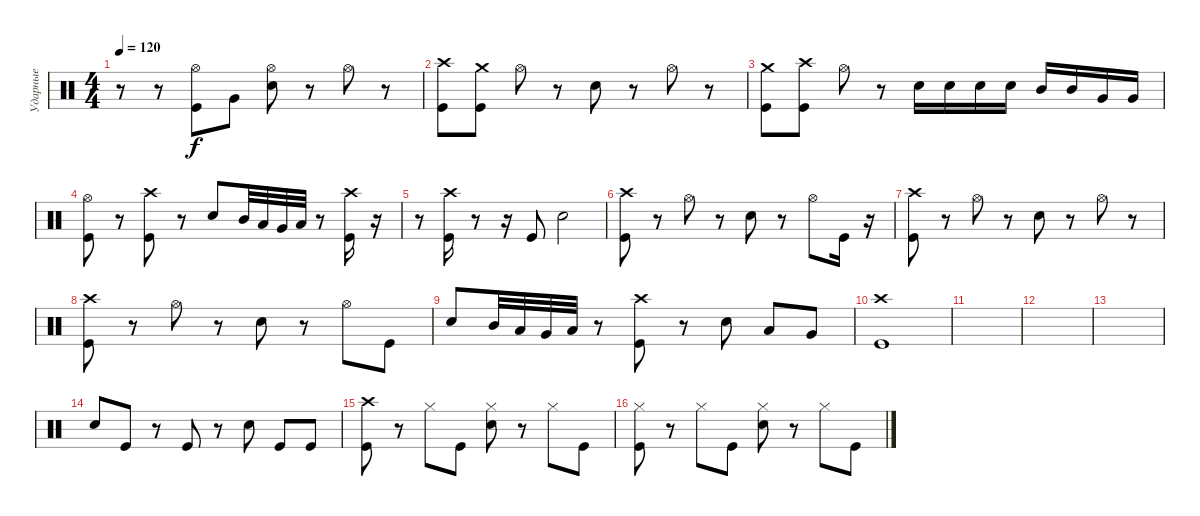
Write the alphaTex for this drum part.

\track ("Ударные" "Ударные") {instrument percussion}
\staff {score}
\articulation defaults
\ts (4 4)
\tempo 120
\clef neutral
\ks c
r.8{dy f} r.8 ("Hi-Hat (open)" "Kick (hit)").8 "Very Low Tom (hit)".8 ("Hi-Hat (open)" "Snare (hit) 2").8 r.8 "Hi-Hat (open)".8 r.8 |
("Crash high (hit)" "Kick (hit)").8 ("Crash medium (hit)" "Kick (hit)").8 "Hi-Hat (open)".8 r.8 "Snare (hit) 2".8 r.8 "Hi-Hat (open)".8 r.8 |
("Crash medium (hit)" "Kick (hit)").8 ("Crash high (hit)" "Kick (hit)").8 "Hi-Hat (open)".8 r.8 "Snare (hit) 2".16 "Snare (hit) 2".16 "Snare (hit) 2".16 "Snare (hit) 2".16 "Mid Tom (hit)".16 "Mid Tom (hit)".16 "Very Low Tom (hit)".16 "Very Low Tom (hit)".16 |
("Hi-Hat (open)" "Kick (hit)").8 r.8 ("Crash high (hit)" "Kick (hit)").8 r.8 "Snare (hit) 2".8 "Mid Tom (hit)".32 "Low Tom (hit)".32 "Very Low Tom (hit)".32 "Low Floor Tom (hit)".32 r.8 ("Crash high (hit)" "Kick (hit)").16 r.16 |
r.8 ("Crash high (hit)" "Kick (hit)").16 r.8 r.16 "Kick (hit)".8 "Snare (hit) 2".2 |
("Crash high (hit)" "Kick (hit)").8 r.8 "Hi-Hat (open)".8 r.8 "Snare (hit) 2".8 r.8 "Hi-Hat (open)".8 "Kick (hit)".16 r.16 |
("Crash high (hit)" "Kick (hit)").8 r.8 "Hi-Hat (open)".8 r.8 "Snare (hit) 2".8 r.8 "Hi-Hat (open)".8 r.8 |
("Crash high (hit)" "Kick (hit)").8 r.8 "Hi-Hat (open)".8 r.8 "Snare (hit) 2".8 r.8 "Hi-Hat (open)".8 "Kick (hit)".8 |
"Snare (hit) 2".8 "Mid Tom (hit)".32 "Low Tom (hit)".32 "Very Low Tom (hit)".32 "Low Floor Tom (hit)".32 r.8 ("Crash high (hit)" "Kick (hit)").8 r.8 "Snare (hit) 2".8 "Low Tom (hit)".8 "Very Low Tom (hit)".8 |
("Crash high (hit)" "Kick (hit)").1 |
|
|
|
"Snare (hit) 2".8 "Kick (hit)".8 r.8 "Kick (hit)".8 r.8 "Snare (hit) 2".8 "Kick (hit)".8 "Kick (hit)".8 |
("Crash high (hit)" "Kick (hit)").8 r.8 "Hi-Hat (closed)".8 "Kick (hit)".8 ("Hi-Hat (closed)" "Snare (hit) 2").8 r.8 "Hi-Hat (closed)".8 "Kick (hit)".8 |
("Hi-Hat (closed)" "Kick (hit)").8 r.8 "Hi-Hat (closed)".8 "Kick (hit)".8 ("Hi-Hat (closed)" "Snare (hit) 2").8 r.8 "Hi-Hat (closed)".8 "Kick (hit)".8
